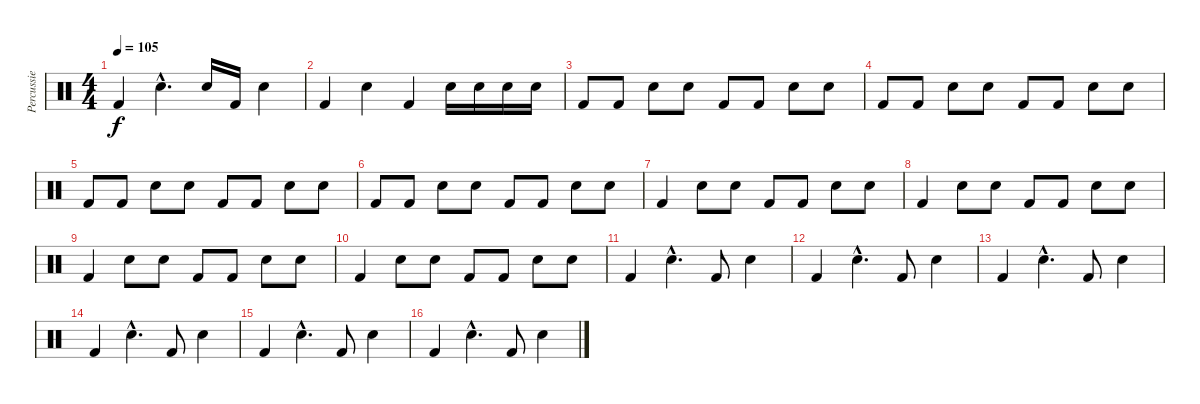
\track ("Percussie" "Percussie") {instrument percussion}
\staff {score}
\articulation defaults
\ts (4 4)
\tempo 105
\clef neutral
\ks c "Kick (hit) 2".4{dy f} "Electric Snare (hit)"{hac}.4{d} "Electric Snare (hit)".16 "Kick (hit) 2".16 "Electric Snare (hit)".4
|
"Kick (hit) 2".4 "Electric Snare (hit)".4 "Kick (hit) 2".4 "Electric Snare (hit)".16 "Electric Snare (hit)".16 "Electric Snare (hit)".16 "Electric Snare (hit)".16 |
"Kick (hit) 2".8 "Kick (hit) 2".8 "Electric Snare (hit)".8 "Electric Snare (hit)".8 "Kick (hit) 2".8 "Kick (hit) 2".8 "Electric Snare (hit)".8 "Electric Snare (hit)".8 |
"Kick (hit) 2".8 "Kick (hit) 2".8 "Electric Snare (hit)".8 "Electric Snare (hit)".8 "Kick (hit) 2".8 "Kick (hit) 2".8 "Electric Snare (hit)".8 "Electric Snare (hit)".8 |
"Kick (hit) 2".8 "Kick (hit) 2".8 "Electric Snare (hit)".8 "Electric Snare (hit)".8 "Kick (hit) 2".8 "Kick (hit) 2".8 "Electric Snare (hit)".8 "Electric Snare (hit)".8 |
"Kick (hit) 2".8 "Kick (hit) 2".8 "Electric Snare (hit)".8 "Electric Snare (hit)".8 "Kick (hit) 2".8 "Kick (hit) 2".8 "Electric Snare (hit)".8 "Electric Snare (hit)".8 |
"Kick (hit) 2".4 "Electric Snare (hit)".8 "Electric Snare (hit)".8 "Kick (hit) 2".8 "Kick (hit) 2".8 "Electric Snare (hit)".8 "Electric Snare (hit)".8 |
"Kick (hit) 2".4 "Electric Snare (hit)".8 "Electric Snare (hit)".8 "Kick (hit) 2".8 "Kick (hit) 2".8 "Electric Snare (hit)".8 "Electric Snare (hit)".8 |
"Kick (hit) 2".4 "Electric Snare (hit)".8 "Electric Snare (hit)".8 "Kick (hit) 2".8 "Kick (hit) 2".8 "Electric Snare (hit)".8 "Electric Snare (hit)".8 |
"Kick (hit) 2".4 "Electric Snare (hit)".8 "Electric Snare (hit)".8 "Kick (hit) 2".8 "Kick (hit) 2".8 "Electric Snare (hit)".8 "Electric Snare (hit)".8 |
"Kick (hit) 2".4 "Electric Snare (hit)"{hac}.4{d} "Kick (hit) 2".8 "Electric Snare (hit)".4 |
"Kick (hit) 2".4 "Electric Snare (hit)"{hac}.4{d} "Kick (hit) 2".8 "Electric Snare (hit)".4 |
"Kick (hit) 2".4 "Electric Snare (hit)"{hac}.4{d} "Kick (hit) 2".8 "Electric Snare (hit)".4 |
"Kick (hit) 2".4 "Electric Snare (hit)"{hac}.4{d} "Kick (hit) 2".8 "Electric Snare (hit)".4 |
"Kick (hit) 2".4 "Electric Snare (hit)"{hac}.4{d} "Kick (hit) 2".8 "Electric Snare (hit)".4 |
"Kick (hit) 2".4 "Electric Snare (hit)"{hac}.4{d} "Kick (hit) 2".8 "Electric Snare (hit)".4
